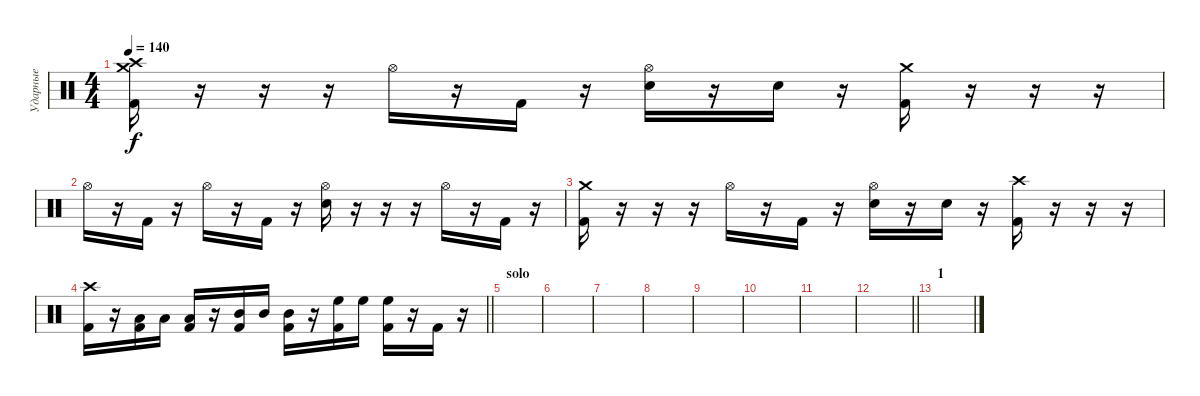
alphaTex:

\track ("Ударные" "Ударные") {instrument percussion}
\staff {score}
\articulation defaults
\ts (4 4)
\tempo 140
\clef neutral
\ks c
("Crash high (hit)" "Crash medium (hit)" "Kick (hit) 2").16{dy f} r.16 r.16 r.16 "Hi-Hat (open)".16 r.16 "Kick (hit) 2".16 r.16 ("Hi-Hat (open)" "Snare (hit) 2").16 r.16 "Snare (hit) 2".16 r.16 ("Crash medium (hit)" "Kick (hit) 2").16 r.16 r.16 r.16 |
"Hi-Hat (open)".16 r.16 "Kick (hit) 2".16 r.16 "Hi-Hat (open)".16 r.16 "Kick (hit) 2".16 r.16 ("Hi-Hat (open)" "Snare (hit) 2").16 r.16 r.16 r.16 "Hi-Hat (open)".16 r.16 "Kick (hit) 2".16 r.16 |
("Crash medium (hit)" "Kick (hit) 2").16 r.16 r.16 r.16 "Hi-Hat (open)".16 r.16 "Kick (hit) 2".16 r.16 ("Hi-Hat (open)" "Snare (hit) 2").16 r.16 "Snare (hit) 2".16 r.16 ("Crash high (hit)" "Kick (hit) 2").16 r.16 r.16 r.16 |
\barLineRight lightlight
("Crash high (hit)" "Kick (hit) 2").16 r.16 ("Low Tom (hit)" "Kick (hit) 2").16 "Low Tom (hit)".16 ("Low Tom (hit)" "Kick (hit) 2").16 r.16 ("Mid Tom (hit)" "Kick (hit) 2").16 "Mid Tom (hit)".16 ("Mid Tom (hit)" "Kick (hit) 2").16 r.16 ("High Floor Tom (hit)" "Kick (hit) 2").16 "High Floor Tom (hit)".16 ("High Floor Tom (hit)" "Kick (hit) 2").16 r.16 "Kick (hit) 2".16 r.16 |
\section ("" "solo")
|
|
|
|
|
|
|
\barLineRight lightlight
|
\section ("" "1")
